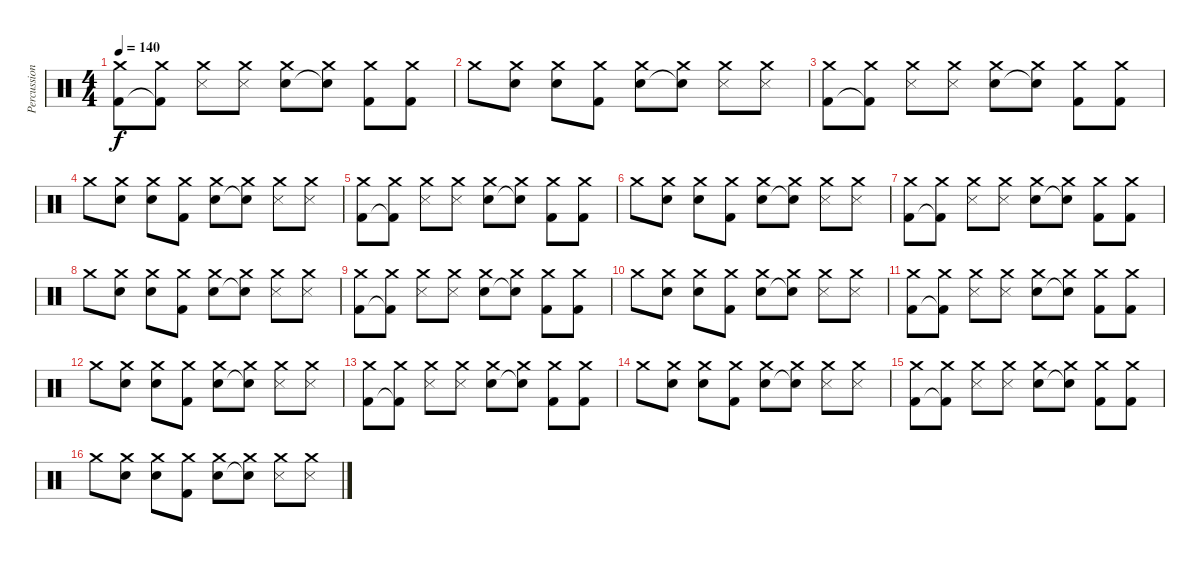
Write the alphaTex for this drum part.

\track ("Percussions" "Percussion") {instrument percussion}
\staff {score}
\articulation defaults
\ts (4 4)
\tempo 140
\clef neutral
\ks c
("Crash medium (hit)" "Kick (hit) 2").8{dy f} ("Crash medium (hit)" "Kick (hit) 2"{t}).8 ("Crash medium (hit)" "Snare (side stick) 3").8 ("Crash medium (hit)" "Snare (side stick) 3").8 ("Crash medium (hit)" "Electric Snare (hit)").8 ("Crash medium (hit)" "Snare (hit)"{t}).8 ("Crash medium (hit)" "Kick (hit) 2").8 ("Crash medium (hit)" "Kick (hit) 2").8 |
"Crash medium (hit)".8 ("Crash medium (hit)" "Electric Snare (hit)").8 ("Crash medium (hit)" "Snare (hit) 2").8 ("Crash medium (hit)" "Kick (hit) 2").8 ("Crash medium (hit)" "Electric Snare (hit)").8 ("Crash medium (hit)" "Snare (hit)"{t}).8 ("Crash medium (hit)" "Snare (side stick) 3").8 ("Crash medium (hit)" "Snare (side stick) 3").8 |
("Crash medium (hit)" "Kick (hit) 2").8 ("Crash medium (hit)" "Kick (hit) 2"{t}).8 ("Crash medium (hit)" "Snare (side stick) 3").8 ("Crash medium (hit)" "Snare (side stick) 3").8 ("Crash medium (hit)" "Electric Snare (hit)").8 ("Crash medium (hit)" "Snare (hit)"{t}).8 ("Crash medium (hit)" "Kick (hit) 2").8 ("Crash medium (hit)" "Kick (hit) 2").8 |
"Crash medium (hit)".8 ("Crash medium (hit)" "Electric Snare (hit)").8 ("Crash medium (hit)" "Snare (hit) 2").8 ("Crash medium (hit)" "Kick (hit) 2").8 ("Crash medium (hit)" "Electric Snare (hit)").8 ("Crash medium (hit)" "Snare (hit)"{t}).8 ("Crash medium (hit)" "Snare (side stick) 3").8 ("Crash medium (hit)" "Snare (side stick) 3").8 |
("Crash medium (hit)" "Kick (hit) 2").8 ("Crash medium (hit)" "Kick (hit) 2"{t}).8 ("Crash medium (hit)" "Snare (side stick) 3").8 ("Crash medium (hit)" "Snare (side stick) 3").8 ("Crash medium (hit)" "Electric Snare (hit)").8 ("Crash medium (hit)" "Snare (hit)"{t}).8 ("Crash medium (hit)" "Kick (hit) 2").8 ("Crash medium (hit)" "Kick (hit) 2").8 |
"Crash medium (hit)".8 ("Crash medium (hit)" "Electric Snare (hit)").8 ("Crash medium (hit)" "Snare (hit) 2").8 ("Crash medium (hit)" "Kick (hit) 2").8 ("Crash medium (hit)" "Electric Snare (hit)").8 ("Crash medium (hit)" "Snare (hit)"{t}).8 ("Crash medium (hit)" "Snare (side stick) 3").8 ("Crash medium (hit)" "Snare (side stick) 3").8 |
("Crash medium (hit)" "Kick (hit) 2").8 ("Crash medium (hit)" "Kick (hit) 2"{t}).8 ("Crash medium (hit)" "Snare (side stick) 3").8 ("Crash medium (hit)" "Snare (side stick) 3").8 ("Crash medium (hit)" "Electric Snare (hit)").8 ("Crash medium (hit)" "Snare (hit)"{t}).8 ("Crash medium (hit)" "Kick (hit) 2").8 ("Crash medium (hit)" "Kick (hit) 2").8 |
"Crash medium (hit)".8 ("Crash medium (hit)" "Electric Snare (hit)").8 ("Crash medium (hit)" "Snare (hit) 2").8 ("Crash medium (hit)" "Kick (hit) 2").8 ("Crash medium (hit)" "Electric Snare (hit)").8 ("Crash medium (hit)" "Snare (hit)"{t}).8 ("Crash medium (hit)" "Snare (side stick) 3").8 ("Crash medium (hit)" "Snare (side stick) 3").8 |
("Crash medium (hit)" "Kick (hit) 2").8{volume 6} ("Crash medium (hit)" "Kick (hit) 2"{t}).8 ("Crash medium (hit)" "Snare (side stick) 3").8 ("Crash medium (hit)" "Snare (side stick) 3").8 ("Crash medium (hit)" "Electric Snare (hit)").8 ("Crash medium (hit)" "Snare (hit)"{t}).8 ("Crash medium (hit)" "Kick (hit) 2").8 ("Crash medium (hit)" "Kick (hit) 2").8 |
"Crash medium (hit)".8 ("Crash medium (hit)" "Electric Snare (hit)").8 ("Crash medium (hit)" "Snare (hit) 2").8 ("Crash medium (hit)" "Kick (hit) 2").8 ("Crash medium (hit)" "Electric Snare (hit)").8 ("Crash medium (hit)" "Snare (hit)"{t}).8 ("Crash medium (hit)" "Snare (side stick) 3").8 ("Crash medium (hit)" "Snare (side stick) 3").8 |
("Crash medium (hit)" "Kick (hit) 2").8 ("Crash medium (hit)" "Kick (hit) 2"{t}).8 ("Crash medium (hit)" "Snare (side stick) 3").8 ("Crash medium (hit)" "Snare (side stick) 3").8 ("Crash medium (hit)" "Electric Snare (hit)").8 ("Crash medium (hit)" "Snare (hit)"{t}).8 ("Crash medium (hit)" "Kick (hit) 2").8 ("Crash medium (hit)" "Kick (hit) 2").8 |
"Crash medium (hit)".8 ("Crash medium (hit)" "Electric Snare (hit)").8 ("Crash medium (hit)" "Snare (hit) 2").8 ("Crash medium (hit)" "Kick (hit) 2").8 ("Crash medium (hit)" "Electric Snare (hit)").8 ("Crash medium (hit)" "Snare (hit)"{t}).8 ("Crash medium (hit)" "Snare (side stick) 3").8 ("Crash medium (hit)" "Snare (side stick) 3").8 |
("Crash medium (hit)" "Kick (hit) 2").8{volume 0} ("Crash medium (hit)" "Kick (hit) 2"{t}).8 ("Crash medium (hit)" "Snare (side stick) 3").8 ("Crash medium (hit)" "Snare (side stick) 3").8 ("Crash medium (hit)" "Electric Snare (hit)").8 ("Crash medium (hit)" "Snare (hit)"{t}).8 ("Crash medium (hit)" "Kick (hit) 2").8 ("Crash medium (hit)" "Kick (hit) 2").8 |
"Crash medium (hit)".8 ("Crash medium (hit)" "Electric Snare (hit)").8 ("Crash medium (hit)" "Snare (hit) 2").8 ("Crash medium (hit)" "Kick (hit) 2").8 ("Crash medium (hit)" "Electric Snare (hit)").8 ("Crash medium (hit)" "Snare (hit)"{t}).8 ("Crash medium (hit)" "Snare (side stick) 3").8 ("Crash medium (hit)" "Snare (side stick) 3").8 |
("Crash medium (hit)" "Kick (hit) 2").8 ("Crash medium (hit)" "Kick (hit) 2"{t}).8 ("Crash medium (hit)" "Snare (side stick) 3").8 ("Crash medium (hit)" "Snare (side stick) 3").8 ("Crash medium (hit)" "Electric Snare (hit)").8 ("Crash medium (hit)" "Snare (hit)"{t}).8 ("Crash medium (hit)" "Kick (hit) 2").8 ("Crash medium (hit)" "Kick (hit) 2").8 |
"Crash medium (hit)".8 ("Crash medium (hit)" "Electric Snare (hit)").8 ("Crash medium (hit)" "Snare (hit) 2").8 ("Crash medium (hit)" "Kick (hit) 2").8 ("Crash medium (hit)" "Electric Snare (hit)").8 ("Crash medium (hit)" "Snare (hit)"{t}).8 ("Crash medium (hit)" "Snare (side stick) 3").8 ("Crash medium (hit)" "Snare (side stick) 3").8
